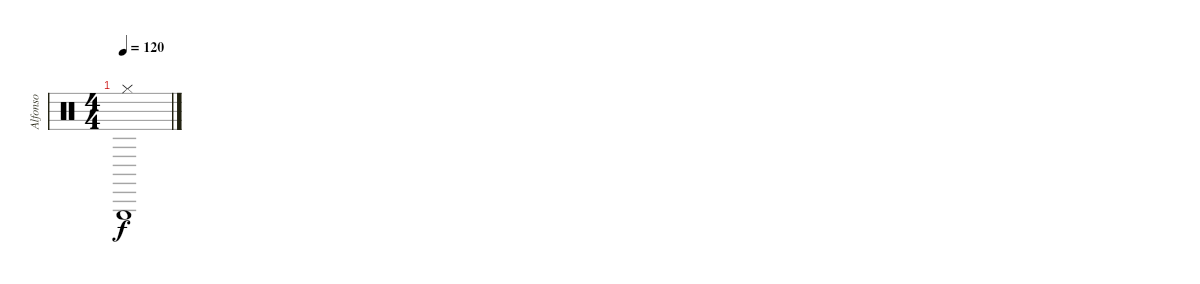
\track ("Alfonso" "Alfonso") {instrument percussion}
\staff {score}
\articulation defaults
\ts (4 4)
\tempo 120
\clef neutral
\ks c
("Hi-Hat (closed)"{t} "Triangle (hit)"{t}).1{dy f}
